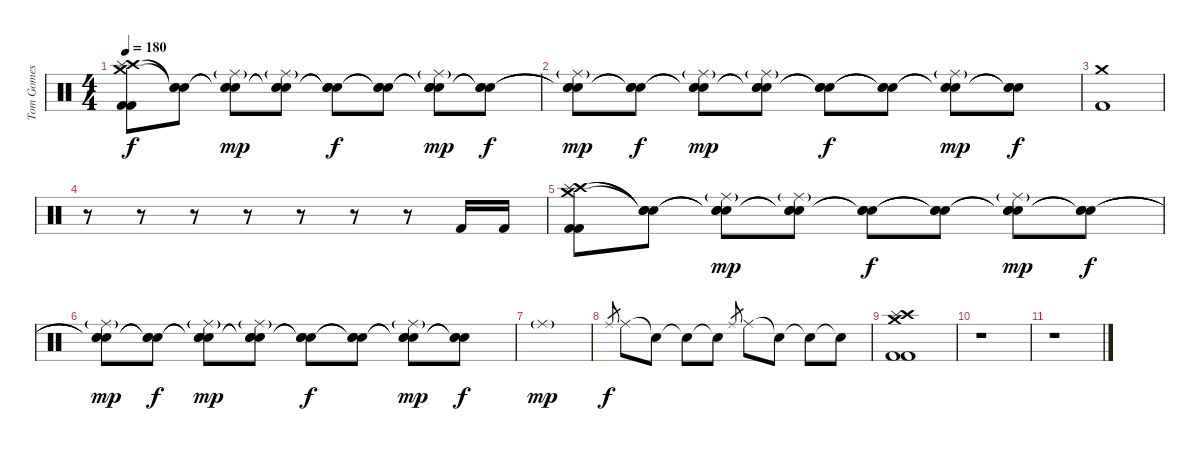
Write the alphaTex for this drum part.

\track ("Tom Gomes" "Tom Gomes") {instrument percussion}
\staff {score}
\articulation defaults
\ts (4 4)
\tempo 180
\clef neutral
\ks c
("Crash high (hit)" "Splash (hit)" "Crash medium (hit)" "Kick (hit) 2" "Kick (hit) 2").8{dy f} ("Snare (hit)"{t} "Snare (hit)"{t} "Snare (hit)"{t}).8 ("Snare (hit)"{t} "Snare (hit)"{t} "Snare (hit)"{t} "Ride (middle)"{g}).8{dy mp} ("Snare (hit)"{t} "Snare (hit)"{t} "Snare (hit)"{t} "Ride (middle)"{g}).8 ("Snare (hit)"{t} "Snare (hit)"{t} "Snare (hit)"{t}).8{dy f} ("Snare (hit)"{t} "Snare (hit)"{t} "Snare (hit)"{t}).8 ("Snare (hit)"{t} "Snare (hit)"{t} "Snare (hit)"{t} "Ride (middle)"{g}).8{dy mp} ("Snare (hit)"{t} "Snare (hit)"{t} "Snare (hit)"{t}).8{dy f} |
("Snare (hit)"{t} "Snare (hit)"{t} "Snare (hit)"{t} "Ride (middle)"{g}).8{dy mp} ("Snare (hit)"{t} "Snare (hit)"{t} "Snare (hit)"{t}).8{dy f} ("Snare (hit)"{t} "Snare (hit)"{t} "Snare (hit)"{t} "Ride (middle)"{g}).8{dy mp} ("Snare (hit)"{t} "Snare (hit)"{t} "Snare (hit)"{t} "Ride (middle)"{g}).8 ("Snare (hit)"{t} "Snare (hit)"{t} "Snare (hit)"{t}).8{dy f} ("Snare (hit)"{t} "Snare (hit)"{t} "Snare (hit)"{t}).8 ("Snare (hit)"{t} "Snare (hit)"{t} "Snare (hit)"{t} "Ride (middle)"{g}).8{dy mp} ("Snare (hit)"{t} "Snare (hit)"{t} "Snare (hit)"{t}).8{dy f} |
("Crash medium (hit)" "Kick (hit) 2").1 |
r.8 r.8 r.8 r.8 r.8 r.8 r.8 "Kick (hit) 2".16 "Kick (hit) 2".16 |
("Crash high (hit)" "Splash (hit)" "Crash medium (hit)" "Kick (hit) 2" "Kick (hit) 2").8 ("Snare (hit)"{t} "Snare (hit)"{t} "Snare (hit)"{t}).8 ("Snare (hit)"{t} "Snare (hit)"{t} "Snare (hit)"{t} "Ride (middle)"{g}).8{dy mp} ("Snare (hit)"{t} "Snare (hit)"{t} "Snare (hit)"{t} "Ride (middle)"{g}).8 ("Snare (hit)"{t} "Snare (hit)"{t} "Snare (hit)"{t}).8{dy f} ("Snare (hit)"{t} "Snare (hit)"{t} "Snare (hit)"{t}).8 ("Snare (hit)"{t} "Snare (hit)"{t} "Snare (hit)"{t} "Ride (middle)"{g}).8{dy mp} ("Snare (hit)"{t} "Snare (hit)"{t} "Snare (hit)"{t}).8{dy f} |
("Snare (hit)"{t} "Snare (hit)"{t} "Snare (hit)"{t} "Ride (middle)"{g}).8{dy mp} ("Snare (hit)"{t} "Snare (hit)"{t} "Snare (hit)"{t}).8{dy f} ("Snare (hit)"{t} "Snare (hit)"{t} "Snare (hit)"{t} "Ride (middle)"{g}).8{dy mp} ("Snare (hit)"{t} "Snare (hit)"{t} "Snare (hit)"{t} "Ride (middle)"{g}).8 ("Snare (hit)"{t} "Snare (hit)"{t} "Snare (hit)"{t}).8{dy f} ("Snare (hit)"{t} "Snare (hit)"{t} "Snare (hit)"{t}).8 ("Snare (hit)"{t} "Snare (hit)"{t} "Snare (hit)"{t} "Ride (middle)"{g}).8{dy mp} ("Snare (hit)"{t} "Snare (hit)"{t} "Snare (hit)"{t}).8{dy f} |
"Ride (middle)"{g}.1{dy mp} |
"Ride (middle)".8{gr dy f} "Ride (middle)".8 "Snare (hit)"{t}.8 "Snare (hit)"{t}.8 "Snare (hit)"{t}.8 "Ride (middle)".8{gr} "Ride (middle)".8 "Snare (hit)"{t}.8 "Snare (hit)"{t}.8 "Snare (hit)"{t}.8 |
("Crash high (hit)" "Crash medium (hit)" "Splash (hit)" "Kick (hit) 2" "Kick (hit) 2").1 |
r.1 |
r.1
